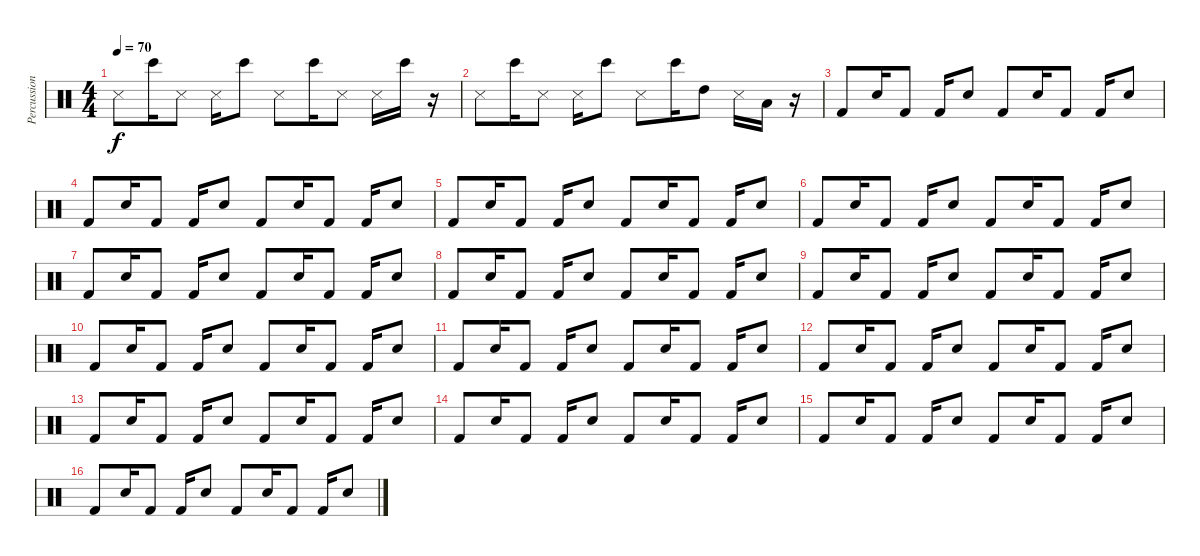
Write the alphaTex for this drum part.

\track ("Percussion" "Percussion") {instrument percussion}
\staff {score}
\articulation defaults
\ts (4 4)
\tempo 70
\clef neutral
\ks c "Metronome (hit)".8{dy f} "Bongo High (hit)".16 "Metronome (hit)".8 "Metronome (hit)".16 "Bongo High (hit)".8 "Metronome (hit)".8 "Bongo High (hit)".16 "Metronome (hit)".8 "Metronome (hit)".16 "Bongo High (hit)".16
r.16 |
"Metronome (hit)".8 "Bongo High (hit)".16 "Metronome (hit)".8 "Metronome (hit)".16 "Bongo High (hit)".8 "Metronome (hit)".8 "Bongo High (hit)".16 "High Tom (hit)".8 "Metronome (hit)".16 "Low Tom (hit)".16 r.16 |
"Kick (hit) 2".8 "Snare (hit) 2".16 "Kick (hit) 2".8 "Kick (hit) 2".16 "Snare (hit) 2".8 "Kick (hit) 2".8 "Snare (hit) 2".16 "Kick (hit) 2".8 "Kick (hit) 2".16 "Snare (hit) 2".8 |
"Kick (hit) 2".8 "Snare (hit) 2".16 "Kick (hit) 2".8 "Kick (hit) 2".16 "Snare (hit) 2".8 "Kick (hit) 2".8 "Snare (hit) 2".16 "Kick (hit) 2".8 "Kick (hit) 2".16 "Snare (hit) 2".8 |
"Kick (hit) 2".8 "Snare (hit) 2".16 "Kick (hit) 2".8 "Kick (hit) 2".16 "Snare (hit) 2".8 "Kick (hit) 2".8 "Snare (hit) 2".16 "Kick (hit) 2".8 "Kick (hit) 2".16 "Snare (hit) 2".8 |
"Kick (hit) 2".8 "Snare (hit) 2".16 "Kick (hit) 2".8 "Kick (hit) 2".16 "Snare (hit) 2".8 "Kick (hit) 2".8 "Snare (hit) 2".16 "Kick (hit) 2".8 "Kick (hit) 2".16 "Snare (hit) 2".8 |
"Kick (hit) 2".8 "Snare (hit) 2".16 "Kick (hit) 2".8 "Kick (hit) 2".16 "Snare (hit) 2".8 "Kick (hit) 2".8 "Snare (hit) 2".16 "Kick (hit) 2".8 "Kick (hit) 2".16 "Snare (hit) 2".8 |
"Kick (hit) 2".8 "Snare (hit) 2".16 "Kick (hit) 2".8 "Kick (hit) 2".16 "Snare (hit) 2".8 "Kick (hit) 2".8 "Snare (hit) 2".16 "Kick (hit) 2".8 "Kick (hit) 2".16 "Snare (hit) 2".8 |
"Kick (hit) 2".8 "Snare (hit) 2".16 "Kick (hit) 2".8 "Kick (hit) 2".16 "Snare (hit) 2".8 "Kick (hit) 2".8 "Snare (hit) 2".16 "Kick (hit) 2".8 "Kick (hit) 2".16 "Snare (hit) 2".8 |
"Kick (hit) 2".8 "Snare (hit) 2".16 "Kick (hit) 2".8 "Kick (hit) 2".16 "Snare (hit) 2".8 "Kick (hit) 2".8 "Snare (hit) 2".16 "Kick (hit) 2".8 "Kick (hit) 2".16 "Snare (hit) 2".8 |
"Kick (hit) 2".8 "Snare (hit) 2".16 "Kick (hit) 2".8 "Kick (hit) 2".16 "Snare (hit) 2".8 "Kick (hit) 2".8 "Snare (hit) 2".16 "Kick (hit) 2".8 "Kick (hit) 2".16 "Snare (hit) 2".8 |
"Kick (hit) 2".8 "Snare (hit) 2".16 "Kick (hit) 2".8 "Kick (hit) 2".16 "Snare (hit) 2".8 "Kick (hit) 2".8 "Snare (hit) 2".16 "Kick (hit) 2".8 "Kick (hit) 2".16 "Snare (hit) 2".8 |
"Kick (hit) 2".8 "Snare (hit) 2".16 "Kick (hit) 2".8 "Kick (hit) 2".16 "Snare (hit) 2".8 "Kick (hit) 2".8 "Snare (hit) 2".16 "Kick (hit) 2".8 "Kick (hit) 2".16 "Snare (hit) 2".8 |
"Kick (hit) 2".8 "Snare (hit) 2".16 "Kick (hit) 2".8 "Kick (hit) 2".16 "Snare (hit) 2".8 "Kick (hit) 2".8 "Snare (hit) 2".16 "Kick (hit) 2".8 "Kick (hit) 2".16 "Snare (hit) 2".8 |
"Kick (hit) 2".8 "Snare (hit) 2".16 "Kick (hit) 2".8 "Kick (hit) 2".16 "Snare (hit) 2".8 "Kick (hit) 2".8 "Snare (hit) 2".16 "Kick (hit) 2".8 "Kick (hit) 2".16 "Snare (hit) 2".8 |
"Kick (hit) 2".8 "Snare (hit) 2".16 "Kick (hit) 2".8 "Kick (hit) 2".16 "Snare (hit) 2".8 "Kick (hit) 2".8 "Snare (hit) 2".16 "Kick (hit) 2".8 "Kick (hit) 2".16 "Snare (hit) 2".8
